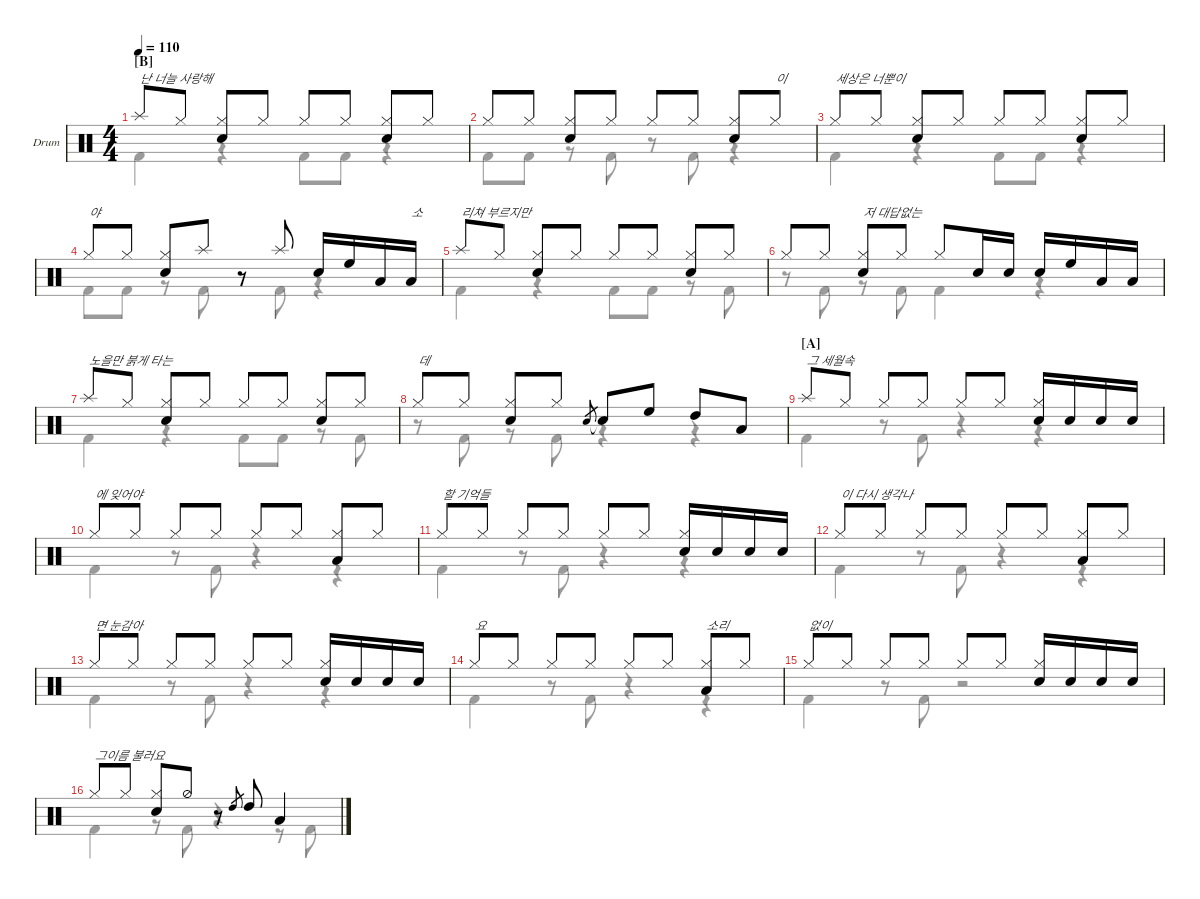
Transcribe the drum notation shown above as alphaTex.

\defaultSystemsLayout 4
\hideDynamics
\bracketExtendMode nobrackets
\firstSystemTrackNameOrientation horizontal
\track ("Drumkit" "Drum") {instrument percussion}
\staff {score}
\articulation defaults
\voice
\ts (4 4)
\section ("B" "")
\tempo 110
\clef neutral
\ks c "Splash (hit)".8{txt "난 너늘 사랑해" dy mf beam Up} "Hi-Hat (closed)".8{beam Up}
("Hi-Hat (closed)" "Snare (hit) 2").8{beam Up} "Hi-Hat (closed)".8{beam Up} "Hi-Hat (closed)".8{beam Up} "Hi-Hat (closed)".8{beam Up} ("Hi-Hat (closed)" "Snare (hit) 2").8{beam Up} "Hi-Hat (closed)".8{beam Up} |
"Hi-Hat (closed)".8{beam Up} "Hi-Hat (closed)".8{beam Up} ("Hi-Hat (closed)" "Snare (hit) 2").8{beam Up} "Hi-Hat (closed)".8{beam Up} "Hi-Hat (closed)".8{beam Up} "Hi-Hat (closed)".8{beam Up} ("Hi-Hat (closed)" "Snare (hit) 2").8{beam Up} "Hi-Hat (closed)".8{txt "이" beam Up} |
"Hi-Hat (closed)".8{txt "세상은 너뿐이" beam Up} "Hi-Hat (closed)".8{beam Up} ("Hi-Hat (closed)" "Snare (hit) 2").8{beam Up} "Hi-Hat (closed)".8{beam Up} "Hi-Hat (closed)".8{beam Up} "Hi-Hat (closed)".8{beam Up} ("Hi-Hat (closed)" "Snare (hit) 2").8{beam Up} "Hi-Hat (closed)".8{beam Up} |
"Hi-Hat (closed)".8{txt "야" beam Up} "Hi-Hat (closed)".8{beam Up} ("Hi-Hat (closed)" "Snare (hit) 2").8{beam Up} "Splash (hit)".8{beam Up} r.8{beam Up} "Splash (hit)".8{beam Up} "Snare (hit) 2".16{beam Up} "High Floor Tom (hit)".16{beam Up} "Low Tom (hit)".16{beam Up} "Low Tom (hit)".16{txt "소" beam Up} |
"Splash (hit)".8{txt "리쳐 부르지만" beam Up} "Hi-Hat (closed)".8{beam Up} ("Hi-Hat (closed)" "Snare (hit) 2").8{beam Up} "Hi-Hat (closed)".8{beam Up} "Hi-Hat (closed)".8{beam Up} "Hi-Hat (closed)".8{beam Up} ("Hi-Hat (closed)" "Snare (hit) 2").8{beam Up} "Hi-Hat (closed)".8{beam Up} |
"Hi-Hat (closed)".8{beam Up} "Hi-Hat (closed)".8{beam Up} ("Hi-Hat (closed)" "Snare (hit) 2").8{txt "저 대답없는" beam Up} "Hi-Hat (closed)".8{beam Up} "Hi-Hat (closed)".8{beam Up} "Snare (hit) 2".16{beam Up} "Snare (hit) 2".16{beam Up} "Snare (hit) 2".16{beam Up} "High Floor Tom (hit)".16{beam Up} "Low Tom (hit)".16{beam Up} "Low Tom (hit)".16{beam Up} |
"Splash (hit)".8{txt "노을만 붉게 타는" beam Up} "Hi-Hat (closed)".8{beam Up} ("Hi-Hat (closed)" "Snare (hit) 2").8{beam Up} "Hi-Hat (closed)".8{beam Up} "Hi-Hat (closed)".8{beam Up} "Hi-Hat (closed)".8{beam Up} ("Hi-Hat (closed)" "Snare (hit) 2").8{beam Up} "Hi-Hat (closed)".8{beam Up} |
"Hi-Hat (closed)".8{txt "데" beam Up} "Hi-Hat (closed)".8{beam Up} ("Hi-Hat (closed)" "Snare (hit) 2").8{beam Up} "Hi-Hat (closed)".8{beam Up} "Snare (hit) 2".8{gr beam Up} "Snare (hit) 2"{t}.8{beam Up} "High Floor Tom (hit)".8{beam Up} "High Tom (hit)".8{beam Up} "Low Tom (hit)".8{beam Up} |
\section ("A" "")
"Splash (hit)".8{txt "그 세월속" beam Up} "Hi-Hat (closed)".8{beam Up} "Hi-Hat (closed)".8{beam Up} "Hi-Hat (closed)".8{beam Up} "Hi-Hat (closed)".8{beam Up} "Hi-Hat (closed)".8{beam Up} ("Hi-Hat (closed)" "Snare (hit) 2").16{beam Up} "Snare (hit) 2".16{beam Up} "Snare (hit) 2".16{beam Up} "Snare (hit) 2".16{beam Up} |
"Hi-Hat (closed)".8{txt "에 잊어야" beam Up} "Hi-Hat (closed)".8{beam Up} "Hi-Hat (closed)".8{beam Up} "Hi-Hat (closed)".8{beam Up} "Hi-Hat (closed)".8{beam Up} "Hi-Hat (closed)".8{beam Up} ("Hi-Hat (closed)" "Low Tom (hit)").8{beam Up} "Hi-Hat (closed)".8{beam Up} |
"Hi-Hat (closed)".8{txt "할 기억들" beam Up} "Hi-Hat (closed)".8{beam Up} "Hi-Hat (closed)".8{beam Up} "Hi-Hat (closed)".8{beam Up} "Hi-Hat (closed)".8{beam Up} "Hi-Hat (closed)".8{beam Up} ("Hi-Hat (closed)" "Snare (hit) 2").16{beam Up} "Snare (hit) 2".16{beam Up} "Snare (hit) 2".16{beam Up} "Snare (hit) 2".16{beam Up} |
"Hi-Hat (closed)".8{txt "이 다시 생각나" beam Up} "Hi-Hat (closed)".8{beam Up} "Hi-Hat (closed)".8{beam Up} "Hi-Hat (closed)".8{beam Up} "Hi-Hat (closed)".8{beam Up} "Hi-Hat (closed)".8{beam Up} ("Hi-Hat (closed)" "Low Tom (hit)").8{beam Up} "Hi-Hat (closed)".8{beam Up} |
"Hi-Hat (closed)".8{txt "면 눈감아" beam Up} "Hi-Hat (closed)".8{beam Up} "Hi-Hat (closed)".8{beam Up} "Hi-Hat (closed)".8{beam Up} "Hi-Hat (closed)".8{beam Up} "Hi-Hat (closed)".8{beam Up} ("Hi-Hat (closed)" "Snare (hit) 2").16{beam Up} "Snare (hit) 2".16{beam Up} "Snare (hit) 2".16{beam Up} "Snare (hit) 2".16{beam Up} |
"Hi-Hat (closed)".8{txt "요 " beam Up} "Hi-Hat (closed)".8{beam Up} "Hi-Hat (closed)".8{beam Up} "Hi-Hat (closed)".8{beam Up} "Hi-Hat (closed)".8{beam Up} "Hi-Hat (closed)".8{beam Up} ("Hi-Hat (closed)" "Low Tom (hit)").8{txt "소리" beam Up} "Hi-Hat (closed)".8{beam Up} |
"Hi-Hat (closed)".8{txt "없이" beam Up} "Hi-Hat (closed)".8{beam Up} "Hi-Hat (closed)".8{beam Up} "Hi-Hat (closed)".8{beam Up} "Hi-Hat (closed)".8{beam Up} "Hi-Hat (closed)".8{beam Up} ("Hi-Hat (closed)" "Snare (hit) 2").16{beam Up} "Snare (hit) 2".16{beam Up} "Snare (hit) 2".16{beam Up} "Snare (hit) 2".16{beam Up} |
"Hi-Hat (closed)".8{txt "그이름 불러요" beam Up} "Hi-Hat (closed)".8{beam Up} ("Hi-Hat (closed)" "Snare (hit) 2").8{beam Up} "Hi-Hat (half)".8{beam Up} r.8{beam Up} "High Tom (hit)".8{gr beam Up} "High Tom (hit)".8{beam Up} "Low Tom (hit)".4{beam Up}
\voice
\clef neutral
\ottava regular
\simile none
\ks c
|
|
|
|
|
|
|
|
|
|
|
|
|
|
|
\voice
\clef neutral
\ottava regular
\simile none
\ks c "Kick (hit) 2".4{dy mf beam Down}
r.4{beam Down} "Kick (hit) 2".8{beam Down} "Kick (hit) 2".8{beam Down} r.4{beam Down} |
"Kick (hit) 2".8{beam Down} "Kick (hit) 2".8{beam Down} r.8{beam Down} "Kick (hit) 2".8{beam Down} r.8{beam Down} "Kick (hit) 2".8{beam Down} r.4{beam Down} |
"Kick (hit) 2".4{beam Down} r.4{beam Down} "Kick (hit) 2".8{beam Down} "Kick (hit) 2".8{beam Down} r.4{beam Down} |
"Kick (hit) 2".8{beam Down} "Kick (hit) 2".8{beam Down} r.8{beam Down} "Kick (hit) 2".8{beam Down} r.8{beam Down} "Kick (hit) 2".8{beam Down} r.4{beam Down} |
"Kick (hit) 2".4{beam Down} r.4{beam Down} "Kick (hit) 2".8{beam Down} "Kick (hit) 2".8{beam Down} r.8{beam Down} "Kick (hit) 2".8{beam Down} |
r.8{beam Down} "Kick (hit) 2".8{beam Down} r.8{beam Down} "Kick (hit) 2".8{beam Down} "Kick (hit) 2".4{beam Down} r.4{beam Down} |
"Kick (hit) 2".4{beam Down} r.4{beam Down} "Kick (hit) 2".8{beam Down} "Kick (hit) 2".8{beam Down} r.8{beam Down} "Kick (hit) 2".8{beam Down} |
r.8{beam Down} "Kick (hit) 2".8{beam Down} r.8{beam Down} "Kick (hit) 2".8{beam Down} r.4{beam Down} r.4{beam Down} |
"Kick (hit) 2".4{beam Down} r.8{beam Down} "Kick (hit) 2".8{beam Down} r.4{beam Down} r.4{beam Down} |
"Kick (hit) 2".4{beam Down} r.8{beam Down} "Kick (hit) 2".8{beam Down} r.4{beam Down} r.4{beam Down} |
"Kick (hit) 2".4{beam Down} r.8{beam Down} "Kick (hit) 2".8{beam Down} r.4{beam Down} r.4{beam Down} |
"Kick (hit) 2".4{beam Down} r.8{beam Down} "Kick (hit) 2".8{beam Down} r.4{beam Down} r.4{beam Down} |
"Kick (hit) 2".4{beam Down} r.8{beam Down} "Kick (hit) 2".8{beam Down} r.4{beam Down} r.4{beam Down} |
"Kick (hit) 2".4{beam Down} r.8{beam Down} "Kick (hit) 2".8{beam Down} r.4{beam Down} r.4{beam Down} |
"Kick (hit) 2".4{beam Down} r.8{beam Down} "Kick (hit) 2".8{beam Down} r.2{beam Down} |
"Kick (hit) 2".4{beam Down} r.8{beam Down} "Kick (hit) 2".8{beam Down} r.4{beam Down} r.8{beam Down} "Kick (hit) 2".8{beam Down}
